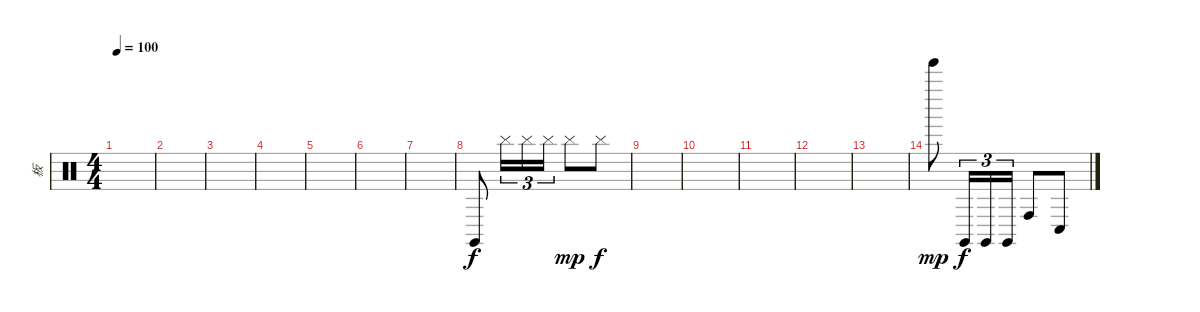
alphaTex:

\track ("板" "板") {instrument percussion}
\staff {score}
\articulation defaults
\ts (4 4)
\tempo 100
\clef neutral
\ks c
|
|
|
|
|
|
|
"Claves (hit)".8 "Cymbal (hit)".16{tu (3 2) dy f} "Cymbal (hit)".16{tu (3 2)} "Cymbal (hit)".16{tu (3 2)} "Cymbal (hit)".8{dy mp} "Cymbal (hit)".8{dy f} |
|
|
|
|
|
"Tinkle Bell (hit)".8{dy mp} "Claves (hit)".16{tu (3 2) dy f} "Claves (hit)".16{tu (3 2)} "Claves (hit)".16{tu (3 2)} "Conga high (hit)".8 "Conga low (hit)".8
